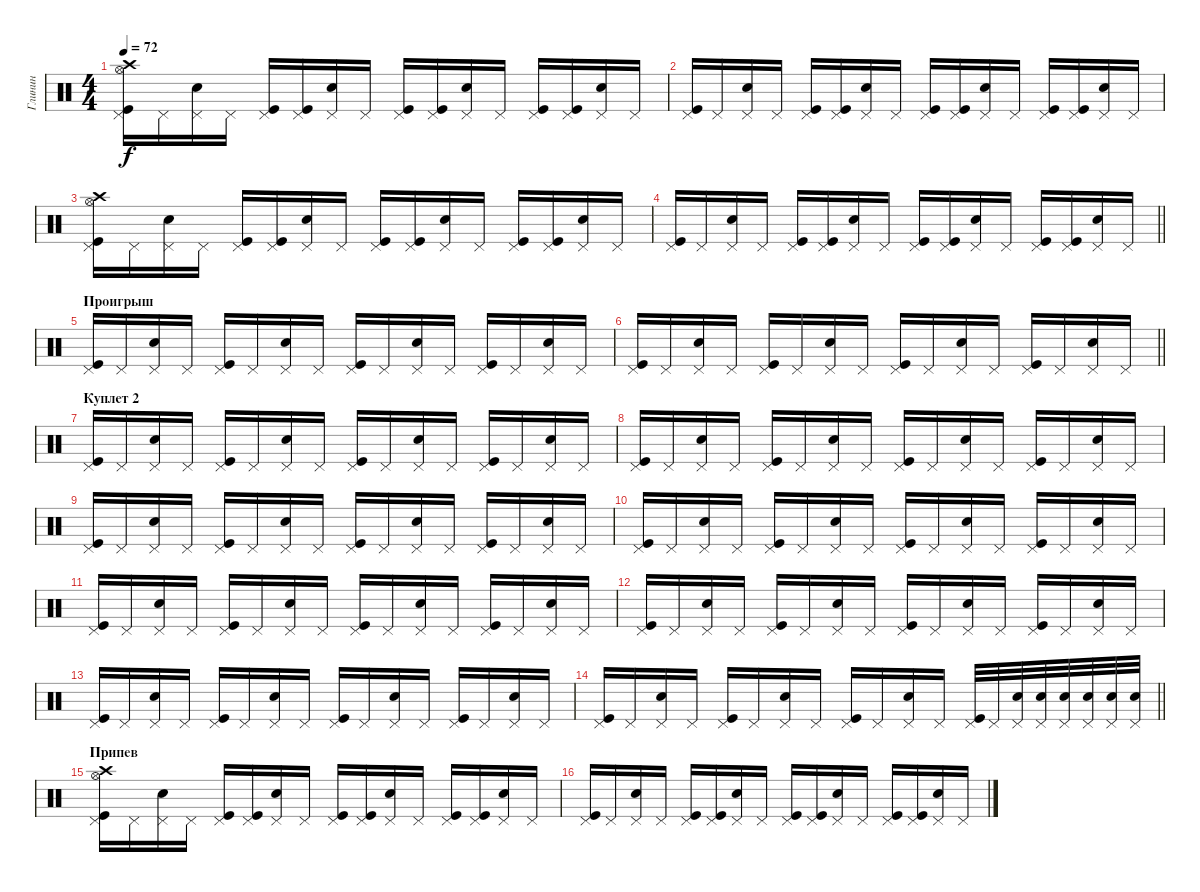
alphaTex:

\track ("Глинин" "Глинин") {instrument percussion}
\staff {score}
\articulation defaults
\ts (4 4)
\tempo 72
\clef neutral
\ks c
("Pedal Hi-Hat (hit)" "Kick (hit)" "Crash high (hit)" "Hi-Hat (open)").16{dy f} "Pedal Hi-Hat (hit)".16 ("Pedal Hi-Hat (hit)" "Snare (hit) 2").16 "Pedal Hi-Hat (hit)".16 ("Pedal Hi-Hat (hit)" "Kick (hit)").16 ("Pedal Hi-Hat (hit)" "Kick (hit)").16 ("Pedal Hi-Hat (hit)" "Snare (hit) 2").16 "Pedal Hi-Hat (hit)".16 ("Pedal Hi-Hat (hit)" "Kick (hit)").16 ("Pedal Hi-Hat (hit)" "Kick (hit)").16 ("Pedal Hi-Hat (hit)" "Snare (hit) 2").16 "Pedal Hi-Hat (hit)".16 ("Pedal Hi-Hat (hit)" "Kick (hit)").16 ("Pedal Hi-Hat (hit)" "Kick (hit)").16 ("Pedal Hi-Hat (hit)" "Snare (hit) 2").16 "Pedal Hi-Hat (hit)".16 |
("Pedal Hi-Hat (hit)" "Kick (hit)").16 "Pedal Hi-Hat (hit)".16 ("Pedal Hi-Hat (hit)" "Snare (hit) 2").16 "Pedal Hi-Hat (hit)".16 ("Pedal Hi-Hat (hit)" "Kick (hit)").16 ("Pedal Hi-Hat (hit)" "Kick (hit)").16 ("Pedal Hi-Hat (hit)" "Snare (hit) 2").16 "Pedal Hi-Hat (hit)".16 ("Pedal Hi-Hat (hit)" "Kick (hit)").16 ("Pedal Hi-Hat (hit)" "Kick (hit)").16 ("Pedal Hi-Hat (hit)" "Snare (hit) 2").16 "Pedal Hi-Hat (hit)".16 ("Pedal Hi-Hat (hit)" "Kick (hit)").16 ("Pedal Hi-Hat (hit)" "Kick (hit)").16 ("Pedal Hi-Hat (hit)" "Snare (hit) 2").16 "Pedal Hi-Hat (hit)".16 |
("Pedal Hi-Hat (hit)" "Kick (hit)" "Crash high (hit)" "Hi-Hat (open)").16 "Pedal Hi-Hat (hit)".16 ("Pedal Hi-Hat (hit)" "Snare (hit) 2").16 "Pedal Hi-Hat (hit)".16 ("Pedal Hi-Hat (hit)" "Kick (hit)").16 ("Pedal Hi-Hat (hit)" "Kick (hit)").16 ("Pedal Hi-Hat (hit)" "Snare (hit) 2").16 "Pedal Hi-Hat (hit)".16 ("Pedal Hi-Hat (hit)" "Kick (hit)").16 ("Pedal Hi-Hat (hit)" "Kick (hit)").16 ("Pedal Hi-Hat (hit)" "Snare (hit) 2").16 "Pedal Hi-Hat (hit)".16 ("Pedal Hi-Hat (hit)" "Kick (hit)").16 ("Pedal Hi-Hat (hit)" "Kick (hit)").16 ("Pedal Hi-Hat (hit)" "Snare (hit) 2").16 "Pedal Hi-Hat (hit)".16 |
\barLineRight lightlight
("Pedal Hi-Hat (hit)" "Kick (hit)").16 "Pedal Hi-Hat (hit)".16 ("Pedal Hi-Hat (hit)" "Snare (hit) 2").16 "Pedal Hi-Hat (hit)".16 ("Pedal Hi-Hat (hit)" "Kick (hit)").16 ("Pedal Hi-Hat (hit)" "Kick (hit)").16 ("Pedal Hi-Hat (hit)" "Snare (hit) 2").16 "Pedal Hi-Hat (hit)".16 ("Pedal Hi-Hat (hit)" "Kick (hit)").16 ("Pedal Hi-Hat (hit)" "Kick (hit)").16 ("Pedal Hi-Hat (hit)" "Snare (hit) 2").16 "Pedal Hi-Hat (hit)".16 ("Pedal Hi-Hat (hit)" "Kick (hit)").16 ("Pedal Hi-Hat (hit)" "Kick (hit)").16 ("Pedal Hi-Hat (hit)" "Snare (hit) 2").16 "Pedal Hi-Hat (hit)".16 |
\section ("" "Проигрыш")
("Pedal Hi-Hat (hit)" "Kick (hit)").16 "Pedal Hi-Hat (hit)".16 ("Pedal Hi-Hat (hit)" "Snare (hit) 2").16 "Pedal Hi-Hat (hit)".16 ("Pedal Hi-Hat (hit)" "Kick (hit)").16 "Pedal Hi-Hat (hit)".16 ("Pedal Hi-Hat (hit)" "Snare (hit) 2").16 "Pedal Hi-Hat (hit)".16 ("Pedal Hi-Hat (hit)" "Kick (hit)").16 "Pedal Hi-Hat (hit)".16 ("Pedal Hi-Hat (hit)" "Snare (hit) 2").16 "Pedal Hi-Hat (hit)".16 ("Pedal Hi-Hat (hit)" "Kick (hit)").16 "Pedal Hi-Hat (hit)".16 ("Pedal Hi-Hat (hit)" "Snare (hit) 2").16 "Pedal Hi-Hat (hit)".16 |
\barLineRight lightlight
("Pedal Hi-Hat (hit)" "Kick (hit)").16 "Pedal Hi-Hat (hit)".16 ("Pedal Hi-Hat (hit)" "Snare (hit) 2").16 "Pedal Hi-Hat (hit)".16 ("Pedal Hi-Hat (hit)" "Kick (hit)").16 "Pedal Hi-Hat (hit)".16 ("Pedal Hi-Hat (hit)" "Snare (hit) 2").16 "Pedal Hi-Hat (hit)".16 ("Pedal Hi-Hat (hit)" "Kick (hit)").16 "Pedal Hi-Hat (hit)".16 ("Pedal Hi-Hat (hit)" "Snare (hit) 2").16 "Pedal Hi-Hat (hit)".16 ("Pedal Hi-Hat (hit)" "Kick (hit)").16 "Pedal Hi-Hat (hit)".16 ("Pedal Hi-Hat (hit)" "Snare (hit) 2").16 "Pedal Hi-Hat (hit)".16 |
\section ("" "Куплет 2")
("Pedal Hi-Hat (hit)" "Kick (hit)").16 "Pedal Hi-Hat (hit)".16 ("Pedal Hi-Hat (hit)" "Snare (hit) 2").16 "Pedal Hi-Hat (hit)".16 ("Pedal Hi-Hat (hit)" "Kick (hit)").16 "Pedal Hi-Hat (hit)".16 ("Pedal Hi-Hat (hit)" "Snare (hit) 2").16 "Pedal Hi-Hat (hit)".16 ("Pedal Hi-Hat (hit)" "Kick (hit)").16 "Pedal Hi-Hat (hit)".16 ("Pedal Hi-Hat (hit)" "Snare (hit) 2").16 "Pedal Hi-Hat (hit)".16 ("Pedal Hi-Hat (hit)" "Kick (hit)").16 "Pedal Hi-Hat (hit)".16 ("Pedal Hi-Hat (hit)" "Snare (hit) 2").16 "Pedal Hi-Hat (hit)".16 |
("Pedal Hi-Hat (hit)" "Kick (hit)").16 "Pedal Hi-Hat (hit)".16 ("Pedal Hi-Hat (hit)" "Snare (hit) 2").16 "Pedal Hi-Hat (hit)".16 ("Pedal Hi-Hat (hit)" "Kick (hit)").16 "Pedal Hi-Hat (hit)".16 ("Pedal Hi-Hat (hit)" "Snare (hit) 2").16 "Pedal Hi-Hat (hit)".16 ("Pedal Hi-Hat (hit)" "Kick (hit)").16 "Pedal Hi-Hat (hit)".16 ("Pedal Hi-Hat (hit)" "Snare (hit) 2").16 "Pedal Hi-Hat (hit)".16 ("Pedal Hi-Hat (hit)" "Kick (hit)").16 "Pedal Hi-Hat (hit)".16 ("Pedal Hi-Hat (hit)" "Snare (hit) 2").16 "Pedal Hi-Hat (hit)".16 |
("Pedal Hi-Hat (hit)" "Kick (hit)").16 "Pedal Hi-Hat (hit)".16 ("Pedal Hi-Hat (hit)" "Snare (hit) 2").16 "Pedal Hi-Hat (hit)".16 ("Pedal Hi-Hat (hit)" "Kick (hit)").16 "Pedal Hi-Hat (hit)".16 ("Pedal Hi-Hat (hit)" "Snare (hit) 2").16 "Pedal Hi-Hat (hit)".16 ("Pedal Hi-Hat (hit)" "Kick (hit)").16 "Pedal Hi-Hat (hit)".16 ("Pedal Hi-Hat (hit)" "Snare (hit) 2").16 "Pedal Hi-Hat (hit)".16 ("Pedal Hi-Hat (hit)" "Kick (hit)").16 "Pedal Hi-Hat (hit)".16 ("Pedal Hi-Hat (hit)" "Snare (hit) 2").16 "Pedal Hi-Hat (hit)".16 |
("Pedal Hi-Hat (hit)" "Kick (hit)").16 "Pedal Hi-Hat (hit)".16 ("Pedal Hi-Hat (hit)" "Snare (hit) 2").16 "Pedal Hi-Hat (hit)".16 ("Pedal Hi-Hat (hit)" "Kick (hit)").16 "Pedal Hi-Hat (hit)".16 ("Pedal Hi-Hat (hit)" "Snare (hit) 2").16 "Pedal Hi-Hat (hit)".16 ("Pedal Hi-Hat (hit)" "Kick (hit)").16 "Pedal Hi-Hat (hit)".16 ("Pedal Hi-Hat (hit)" "Snare (hit) 2").16 "Pedal Hi-Hat (hit)".16 ("Pedal Hi-Hat (hit)" "Kick (hit)").16 "Pedal Hi-Hat (hit)".16 ("Pedal Hi-Hat (hit)" "Snare (hit) 2").16 "Pedal Hi-Hat (hit)".16 |
("Pedal Hi-Hat (hit)" "Kick (hit)").16 "Pedal Hi-Hat (hit)".16 ("Pedal Hi-Hat (hit)" "Snare (hit) 2").16 "Pedal Hi-Hat (hit)".16 ("Pedal Hi-Hat (hit)" "Kick (hit)").16 "Pedal Hi-Hat (hit)".16 ("Pedal Hi-Hat (hit)" "Snare (hit) 2").16 "Pedal Hi-Hat (hit)".16 ("Pedal Hi-Hat (hit)" "Kick (hit)").16 "Pedal Hi-Hat (hit)".16 ("Pedal Hi-Hat (hit)" "Snare (hit) 2").16 "Pedal Hi-Hat (hit)".16 ("Pedal Hi-Hat (hit)" "Kick (hit)").16 "Pedal Hi-Hat (hit)".16 ("Pedal Hi-Hat (hit)" "Snare (hit) 2").16 "Pedal Hi-Hat (hit)".16 |
("Pedal Hi-Hat (hit)" "Kick (hit)").16 "Pedal Hi-Hat (hit)".16 ("Pedal Hi-Hat (hit)" "Snare (hit) 2").16 "Pedal Hi-Hat (hit)".16 ("Pedal Hi-Hat (hit)" "Kick (hit)").16 "Pedal Hi-Hat (hit)".16 ("Pedal Hi-Hat (hit)" "Snare (hit) 2").16 "Pedal Hi-Hat (hit)".16 ("Pedal Hi-Hat (hit)" "Kick (hit)").16 "Pedal Hi-Hat (hit)".16 ("Pedal Hi-Hat (hit)" "Snare (hit) 2").16 "Pedal Hi-Hat (hit)".16 ("Pedal Hi-Hat (hit)" "Kick (hit)").16 "Pedal Hi-Hat (hit)".16 ("Pedal Hi-Hat (hit)" "Snare (hit) 2").16 "Pedal Hi-Hat (hit)".16 |
("Pedal Hi-Hat (hit)" "Kick (hit)").16 "Pedal Hi-Hat (hit)".16 ("Pedal Hi-Hat (hit)" "Snare (hit) 2").16 "Pedal Hi-Hat (hit)".16 ("Pedal Hi-Hat (hit)" "Kick (hit)").16 "Pedal Hi-Hat (hit)".16 ("Pedal Hi-Hat (hit)" "Snare (hit) 2").16 "Pedal Hi-Hat (hit)".16 ("Pedal Hi-Hat (hit)" "Kick (hit)").16 "Pedal Hi-Hat (hit)".16 ("Pedal Hi-Hat (hit)" "Snare (hit) 2").16 "Pedal Hi-Hat (hit)".16 ("Pedal Hi-Hat (hit)" "Kick (hit)").16 "Pedal Hi-Hat (hit)".16 ("Pedal Hi-Hat (hit)" "Snare (hit) 2").16 "Pedal Hi-Hat (hit)".16 |
\barLineRight lightlight
("Pedal Hi-Hat (hit)" "Kick (hit)").16 "Pedal Hi-Hat (hit)".16 ("Pedal Hi-Hat (hit)" "Snare (hit) 2").16 "Pedal Hi-Hat (hit)".16 ("Pedal Hi-Hat (hit)" "Kick (hit)").16 "Pedal Hi-Hat (hit)".16 ("Pedal Hi-Hat (hit)" "Snare (hit) 2").16 "Pedal Hi-Hat (hit)".16 ("Pedal Hi-Hat (hit)" "Kick (hit)").16 "Pedal Hi-Hat (hit)".16 ("Pedal Hi-Hat (hit)" "Snare (hit) 2").16 "Pedal Hi-Hat (hit)".16 ("Pedal Hi-Hat (hit)" "Kick (hit)").32 "Pedal Hi-Hat (hit)".32 ("Pedal Hi-Hat (hit)" "Snare (hit) 2").32 ("Pedal Hi-Hat (hit)" "Snare (hit) 2").32 ("Pedal Hi-Hat (hit)" "Snare (hit) 2").32 ("Pedal Hi-Hat (hit)" "Snare (hit) 2").32 ("Pedal Hi-Hat (hit)" "Snare (hit) 2").32 ("Pedal Hi-Hat (hit)" "Snare (hit) 2").32 |
\section ("" "Припев")
("Pedal Hi-Hat (hit)" "Kick (hit)" "Crash high (hit)" "Hi-Hat (open)").16 "Pedal Hi-Hat (hit)".16 ("Pedal Hi-Hat (hit)" "Snare (hit) 2").16 "Pedal Hi-Hat (hit)".16 ("Pedal Hi-Hat (hit)" "Kick (hit)").16 ("Pedal Hi-Hat (hit)" "Kick (hit)").16 ("Pedal Hi-Hat (hit)" "Snare (hit) 2").16 "Pedal Hi-Hat (hit)".16 ("Pedal Hi-Hat (hit)" "Kick (hit)").16 ("Pedal Hi-Hat (hit)" "Kick (hit)").16 ("Pedal Hi-Hat (hit)" "Snare (hit) 2").16 "Pedal Hi-Hat (hit)".16 ("Pedal Hi-Hat (hit)" "Kick (hit)").16 ("Pedal Hi-Hat (hit)" "Kick (hit)").16 ("Pedal Hi-Hat (hit)" "Snare (hit) 2").16 "Pedal Hi-Hat (hit)".16 |
("Pedal Hi-Hat (hit)" "Kick (hit)").16 "Pedal Hi-Hat (hit)".16 ("Pedal Hi-Hat (hit)" "Snare (hit) 2").16 "Pedal Hi-Hat (hit)".16 ("Pedal Hi-Hat (hit)" "Kick (hit)").16 ("Pedal Hi-Hat (hit)" "Kick (hit)").16 ("Pedal Hi-Hat (hit)" "Snare (hit) 2").16 "Pedal Hi-Hat (hit)".16 ("Pedal Hi-Hat (hit)" "Kick (hit)").16 ("Pedal Hi-Hat (hit)" "Kick (hit)").16 ("Pedal Hi-Hat (hit)" "Snare (hit) 2").16 "Pedal Hi-Hat (hit)".16 ("Pedal Hi-Hat (hit)" "Kick (hit)").16 ("Pedal Hi-Hat (hit)" "Kick (hit)").16 ("Pedal Hi-Hat (hit)" "Snare (hit) 2").16 "Pedal Hi-Hat (hit)".16
